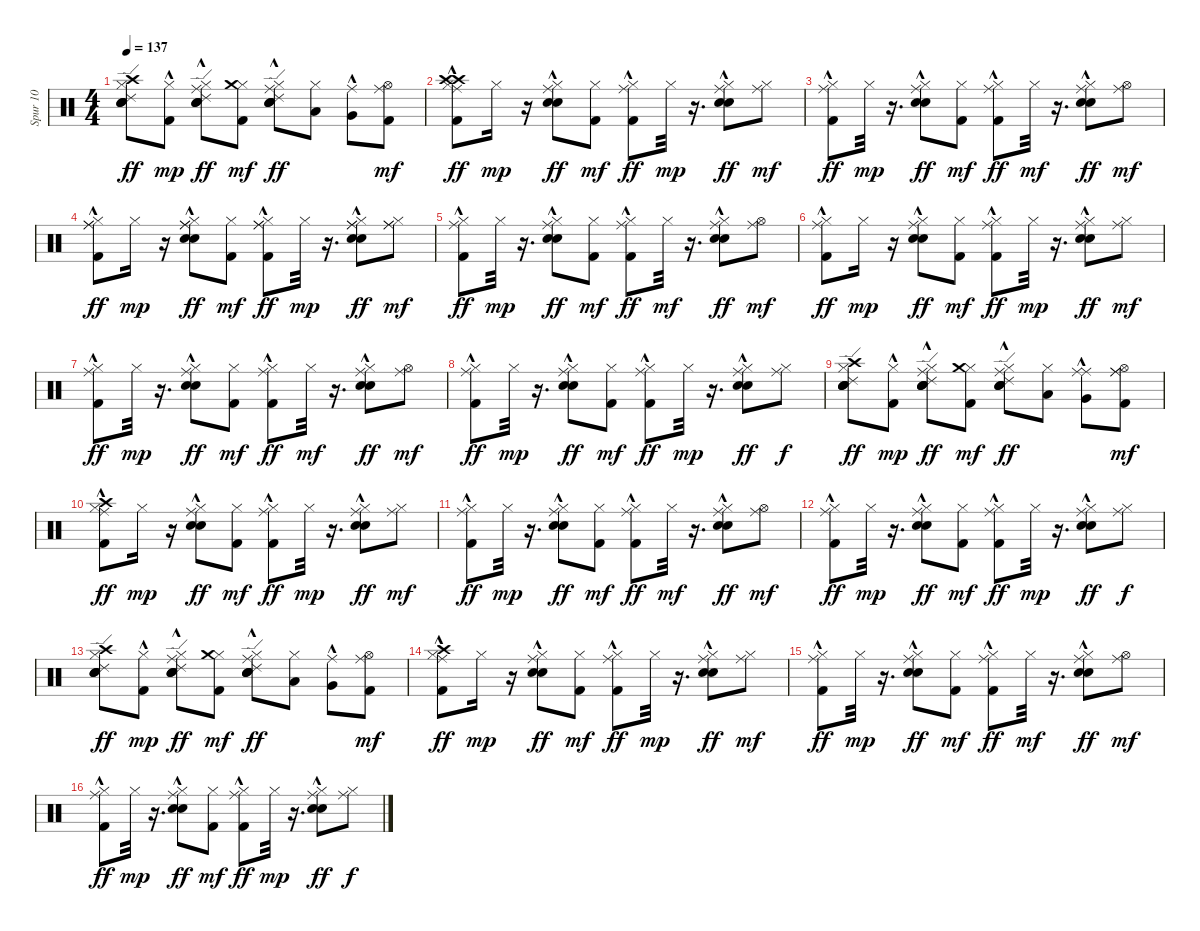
\track ("Spur 10" "Spur 10") {instrument percussion}
\staff {score}
\articulation defaults
\ts (4 4)
\tempo 137
\clef neutral
\ks c
("Snare (hit)" "Electric Snare (hit)" "Ride (edge) 2" "Snare (hit) 2" "Crash high (hit)" "Hi-Hat (closed)").8{dy ff} ("Kick (hit) 2"{hac} "Hi-Hat (closed)").8{dy mp} ("Electric Snare (hit)" "Snare (hit)" "Snare (hit) 2" "Ride (edge) 2" "Hi-Hat (closed)" "Ride (middle)"{hac}).8{dy ff} ("Kick (hit) 2" "Hi-Hat (closed)" "Crash medium (hit)").8{dy mf} ("Electric Snare (hit)" "Snare (hit)" "Snare (hit) 2" "Ride (edge) 2" "Hi-Hat (closed)" "Ride (middle)"{hac}).8{dy ff} ("Hi-Hat (closed)" "Low Tom (hit)").8 ("Very Low Tom (hit)" "Ride (middle)"{hac}).8 ("Kick (hit) 2" "Hi-Hat (open)" "Ride (middle)").8{dy mf} |
("Kick (hit) 2"{hac} "Crash high (hit)" "Ride (middle)" "Hi-Hat (closed)" "Crash high (hit)").8{dy ff} "Hi-Hat (closed)".16{dy mp} r.16 ("Ride (middle)"{hac} "Electric Snare (hit)"{hac} "Snare (hit) 2"{hac} "Hi-Hat (closed)").8{dy ff} ("Kick (hit) 2" "Hi-Hat (closed)").8{dy mf} ("Kick (hit) 2" "Ride (middle)"{hac} "Hi-Hat (closed)").8{dy ff} "Hi-Hat (closed)".32{dy mp} r.16{d} ("Ride (middle)"{hac} "Electric Snare (hit)"{hac} "Snare (hit) 2"{hac} "Hi-Hat (closed)").8{dy ff} ("Ride (middle)" "Hi-Hat (closed)").8{dy mf} |
("Kick (hit) 2"{hac} "Hi-Hat (closed)" "Ride (middle)").8{dy ff} "Hi-Hat (closed)".32{dy mp} r.16{d} ("Electric Snare (hit)"{hac} "Snare (hit) 2"{hac} "Hi-Hat (closed)" "Ride (middle)"{hac}).8{dy ff} ("Kick (hit) 2" "Hi-Hat (closed)").8{dy mf} ("Kick (hit) 2" "Hi-Hat (closed)" "Ride (middle)"{hac}).8{dy ff} "Hi-Hat (closed)".32{dy mf} r.16{d} ("Electric Snare (hit)"{hac} "Snare (hit) 2"{hac} "Hi-Hat (closed)" "Ride (middle)"{hac}).8{dy ff} ("Hi-Hat (open)" "Ride (middle)").8{dy mf} |
("Kick (hit) 2"{hac} "Hi-Hat (closed)" "Ride (middle)" "Ride (middle)").8{dy ff} "Hi-Hat (closed)".16{dy mp} r.16 ("Electric Snare (hit)"{hac} "Snare (hit) 2"{hac} "Hi-Hat (closed)" "Ride (middle)"{hac} "Ride (middle)"{hac}).8{dy ff} ("Kick (hit) 2" "Hi-Hat (closed)").8{dy mf} ("Kick (hit) 2" "Hi-Hat (closed)" "Ride (middle)"{hac} "Ride (middle)"{hac}).8{dy ff} "Hi-Hat (closed)".32{dy mp} r.16{d} ("Electric Snare (hit)"{hac} "Snare (hit) 2"{hac} "Hi-Hat (closed)" "Ride (middle)"{hac} "Ride (middle)"{hac}).8{dy ff} ("Hi-Hat (closed)" "Ride (middle)" "Ride (middle)").8{dy mf} |
("Kick (hit) 2"{hac} "Ride (middle)" "Hi-Hat (closed)").8{dy ff} "Hi-Hat (closed)".32{dy mp} r.16{d} ("Electric Snare (hit)"{hac} "Snare (hit) 2"{hac} "Hi-Hat (closed)" "Ride (middle)"{hac}).8{dy ff} ("Kick (hit) 2" "Hi-Hat (closed)").8{dy mf} ("Kick (hit) 2" "Hi-Hat (closed)" "Ride (middle)"{hac}).8{dy ff} "Hi-Hat (closed)".32{dy mf} r.16{d} ("Electric Snare (hit)"{hac} "Snare (hit) 2"{hac} "Hi-Hat (closed)" "Ride (middle)"{hac}).8{dy ff} ("Hi-Hat (open)" "Ride (middle)").8{dy mf} |
("Kick (hit) 2"{hac} "Hi-Hat (closed)" "Ride (middle)").8{dy ff} "Hi-Hat (closed)".16{dy mp} r.16 ("Electric Snare (hit)"{hac} "Snare (hit) 2"{hac} "Hi-Hat (closed)" "Ride (middle)"{hac}).8{dy ff} ("Kick (hit) 2" "Hi-Hat (closed)").8{dy mf} ("Kick (hit) 2" "Hi-Hat (closed)" "Ride (middle)"{hac}).8{dy ff} "Hi-Hat (closed)".32{dy mp} r.16{d} ("Electric Snare (hit)"{hac} "Snare (hit) 2"{hac} "Hi-Hat (closed)" "Ride (middle)"{hac}).8{dy ff} ("Hi-Hat (closed)" "Ride (middle)").8{dy mf} |
("Kick (hit) 2"{hac} "Ride (middle)" "Hi-Hat (closed)").8{dy ff} "Hi-Hat (closed)".32{dy mp} r.16{d} ("Electric Snare (hit)"{hac} "Snare (hit) 2"{hac} "Hi-Hat (closed)" "Ride (middle)"{hac}).8{dy ff} ("Kick (hit) 2" "Hi-Hat (closed)").8{dy mf} ("Kick (hit) 2" "Hi-Hat (closed)" "Ride (middle)"{hac}).8{dy ff} "Hi-Hat (closed)".32{dy mf} r.16{d} ("Electric Snare (hit)"{hac} "Snare (hit) 2"{hac} "Hi-Hat (closed)" "Ride (middle)"{hac}).8{dy ff} ("Hi-Hat (open)" "Ride (middle)").8{dy mf} |
("Kick (hit) 2"{hac} "Hi-Hat (closed)" "Ride (middle)").8{dy ff} "Hi-Hat (closed)".32{dy mp} r.16{d} ("Electric Snare (hit)"{hac} "Snare (hit) 2"{hac} "Hi-Hat (closed)" "Ride (middle)"{hac}).8{dy ff} ("Kick (hit) 2" "Hi-Hat (closed)").8{dy mf} ("Kick (hit) 2" "Hi-Hat (closed)" "Ride (middle)"{hac}).8{dy ff} "Hi-Hat (closed)".32{dy mp} r.16{d} ("Electric Snare (hit)" "Snare (hit) 2" "Hi-Hat (closed)" "Ride (middle)"{hac}).8{dy ff} ("Hi-Hat (closed)" "Ride (middle)").8{dy f} |
("Snare (hit)" "Electric Snare (hit)" "Ride (edge) 2" "Snare (hit) 2" "Crash high (hit)" "Hi-Hat (closed)").8{dy ff} ("Kick (hit) 2"{hac} "Hi-Hat (closed)").8{dy mp} ("Electric Snare (hit)" "Snare (hit)" "Snare (hit) 2" "Ride (edge) 2" "Hi-Hat (closed)" "Ride (middle)"{hac}).8{dy ff} ("Kick (hit) 2" "Hi-Hat (closed)" "Crash medium (hit)").8{dy mf} ("Electric Snare (hit)" "Snare (hit)" "Snare (hit) 2" "Ride (edge) 2" "Hi-Hat (closed)" "Ride (middle)"{hac}).8{dy ff} ("Hi-Hat (closed)" "Low Tom (hit)").8 ("Very Low Tom (hit)" "Ride (middle)"{hac} "Ride (middle)"{hac}).8 ("Kick (hit) 2" "Hi-Hat (open)" "Ride (middle)" "Ride (middle)").8{dy mf} |
("Kick (hit) 2"{hac} "Crash high (hit)" "Ride (middle)" "Hi-Hat (closed)").8{dy ff} "Hi-Hat (closed)".16{dy mp} r.16 ("Ride (middle)"{hac} "Electric Snare (hit)"{hac} "Snare (hit) 2"{hac} "Hi-Hat (closed)").8{dy ff} ("Kick (hit) 2" "Hi-Hat (closed)").8{dy mf} ("Kick (hit) 2" "Ride (middle)"{hac} "Hi-Hat (closed)").8{dy ff} "Hi-Hat (closed)".32{dy mp} r.16{d} ("Ride (middle)"{hac} "Electric Snare (hit)"{hac} "Snare (hit) 2"{hac} "Hi-Hat (closed)").8{dy ff} ("Ride (middle)" "Hi-Hat (closed)").8{dy mf} |
("Kick (hit) 2"{hac} "Hi-Hat (closed)" "Ride (middle)").8{dy ff} "Hi-Hat (closed)".32{dy mp} r.16{d} ("Electric Snare (hit)"{hac} "Snare (hit) 2"{hac} "Hi-Hat (closed)" "Ride (middle)"{hac}).8{dy ff} ("Kick (hit) 2" "Hi-Hat (closed)").8{dy mf} ("Kick (hit) 2" "Hi-Hat (closed)" "Ride (middle)"{hac}).8{dy ff} "Hi-Hat (closed)".32{dy mf} r.16{d} ("Electric Snare (hit)"{hac} "Snare (hit) 2"{hac} "Hi-Hat (closed)" "Ride (middle)"{hac}).8{dy ff} ("Hi-Hat (open)" "Ride (middle)").8{dy mf} |
("Kick (hit) 2"{hac} "Ride (middle)" "Hi-Hat (closed)").8{dy ff} "Hi-Hat (closed)".32{dy mp} r.16{d} ("Ride (middle)"{hac} "Electric Snare (hit)"{hac} "Snare (hit) 2"{hac} "Hi-Hat (closed)").8{dy ff} ("Kick (hit) 2" "Hi-Hat (closed)").8{dy mf} ("Kick (hit) 2" "Ride (middle)"{hac} "Hi-Hat (closed)").8{dy ff} "Hi-Hat (closed)".32{dy mp} r.16{d} ("Ride (middle)"{hac} "Electric Snare (hit)" "Snare (hit) 2" "Hi-Hat (closed)").8{dy ff} ("Ride (middle)" "Hi-Hat (closed)").8{dy f} |
("Snare (hit)" "Electric Snare (hit)" "Ride (edge) 2" "Snare (hit) 2" "Crash high (hit)" "Hi-Hat (closed)").8{dy ff} ("Kick (hit) 2"{hac} "Hi-Hat (closed)").8{dy mp} ("Electric Snare (hit)" "Snare (hit)" "Snare (hit) 2" "Ride (edge) 2" "Hi-Hat (closed)" "Ride (middle)"{hac}).8{dy ff} ("Kick (hit) 2" "Hi-Hat (closed)" "Crash medium (hit)").8{dy mf} ("Electric Snare (hit)" "Snare (hit)" "Snare (hit) 2" "Ride (edge) 2" "Hi-Hat (closed)" "Ride (middle)"{hac}).8{dy ff} ("Hi-Hat (closed)" "Low Tom (hit)").8 ("Very Low Tom (hit)" "Ride (middle)"{hac}).8 ("Kick (hit) 2" "Hi-Hat (open)" "Ride (middle)").8{dy mf} |
("Crash high (hit)" "Kick (hit) 2"{hac} "Hi-Hat (closed)" "Ride (middle)").8{dy ff} "Hi-Hat (closed)".16{dy mp} r.16 ("Electric Snare (hit)"{hac} "Snare (hit) 2"{hac} "Hi-Hat (closed)" "Ride (middle)"{hac}).8{dy ff} ("Kick (hit) 2" "Hi-Hat (closed)").8{dy mf} ("Kick (hit) 2" "Hi-Hat (closed)" "Ride (middle)"{hac}).8{dy ff} "Hi-Hat (closed)".32{dy mp} r.16{d} ("Electric Snare (hit)"{hac} "Snare (hit) 2"{hac} "Hi-Hat (closed)" "Ride (middle)"{hac}).8{dy ff} ("Hi-Hat (closed)" "Ride (middle)").8{dy mf} |
("Kick (hit) 2"{hac} "Hi-Hat (closed)" "Ride (middle)").8{dy ff} "Hi-Hat (closed)".32{dy mp} r.16{d} ("Electric Snare (hit)"{hac} "Snare (hit) 2"{hac} "Hi-Hat (closed)" "Ride (middle)"{hac}).8{dy ff} ("Kick (hit) 2" "Hi-Hat (closed)").8{dy mf} ("Kick (hit) 2" "Hi-Hat (closed)" "Ride (middle)"{hac}).8{dy ff} "Hi-Hat (closed)".32{dy mf} r.16{d} ("Electric Snare (hit)"{hac} "Snare (hit) 2"{hac} "Hi-Hat (closed)" "Ride (middle)"{hac}).8{dy ff} ("Hi-Hat (open)" "Ride (middle)").8{dy mf} |
("Kick (hit) 2"{hac} "Ride (middle)" "Hi-Hat (closed)").8{dy ff} "Hi-Hat (closed)".32{dy mp} r.16{d} ("Ride (middle)"{hac} "Electric Snare (hit)"{hac} "Snare (hit) 2"{hac} "Hi-Hat (closed)").8{dy ff} ("Kick (hit) 2" "Hi-Hat (closed)").8{dy mf} ("Kick (hit) 2" "Ride (middle)"{hac} "Hi-Hat (closed)").8{dy ff} "Hi-Hat (closed)".32{dy mp} r.16{d} ("Ride (middle)"{hac} "Electric Snare (hit)" "Snare (hit) 2" "Hi-Hat (closed)").8{dy ff} ("Ride (middle)" "Hi-Hat (closed)").8{dy f}
